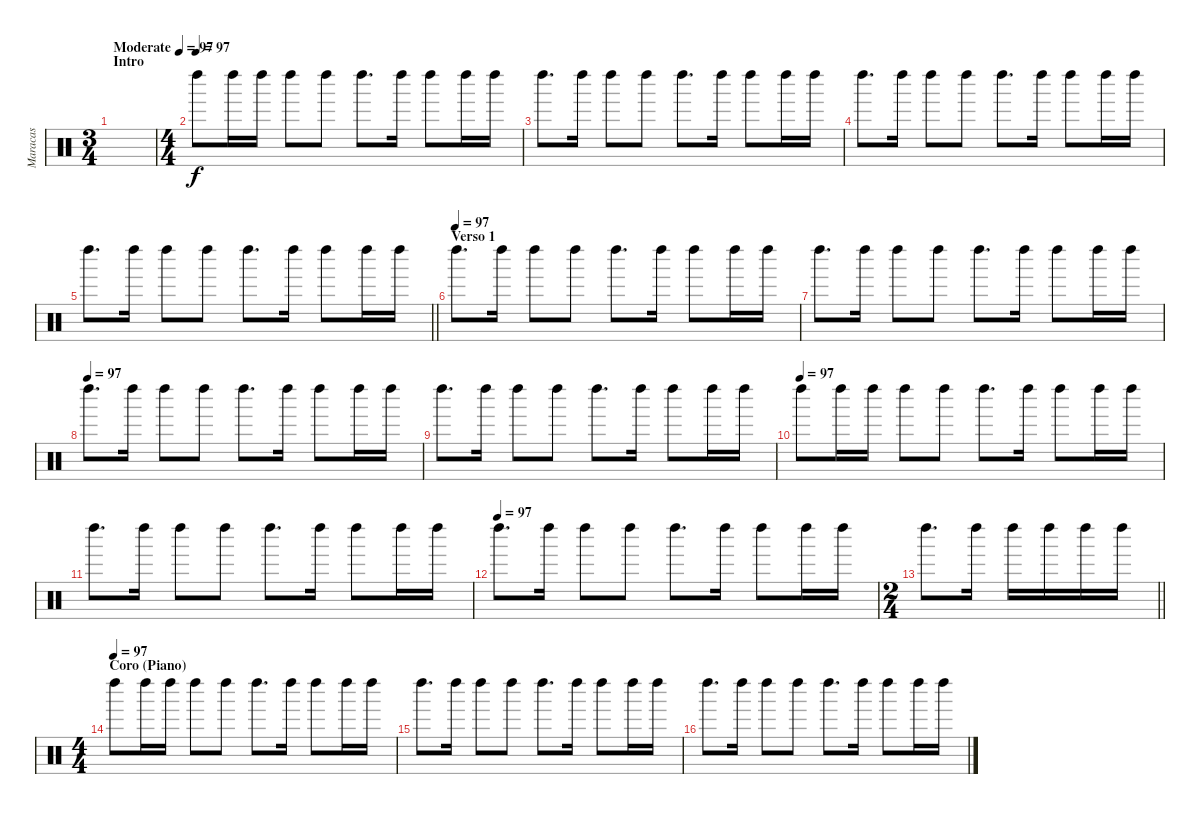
\track ("Maracas" "Maracas") {instrument percussion}
\staff {score}
\articulation defaults
\ts (3 4)
\section ("" "Intro")
\tempo (97 "Moderate")
\tempo 125
\tempo (97 "Moderate")
\clef neutral
\ks c
|
\ts (4 4)
\tempo (97)
"Left Maraca (hit)".8 "Left Maraca (hit)".16 "Left Maraca (hit)".16 "Left Maraca (hit)".8 "Left Maraca (hit)".8 "Left Maraca (hit)".8{d} "Left Maraca (hit)".16 "Left Maraca (hit)".8 "Left Maraca (hit)".16 "Left Maraca (hit)".16 |
"Left Maraca (hit)".8{d} "Left Maraca (hit)".16 "Left Maraca (hit)".8 "Left Maraca (hit)".8 "Left Maraca (hit)".8{d} "Left Maraca (hit)".16 "Left Maraca (hit)".8 "Left Maraca (hit)".16 "Left Maraca (hit)".16 |
"Left Maraca (hit)".8{d} "Left Maraca (hit)".16 "Left Maraca (hit)".8 "Left Maraca (hit)".8 "Left Maraca (hit)".8{d} "Left Maraca (hit)".16 "Left Maraca (hit)".8 "Left Maraca (hit)".16 "Left Maraca (hit)".16 |
\barLineRight lightlight "Left Maraca (hit)".8{d} "Left Maraca (hit)".16 "Left Maraca (hit)".8 "Left Maraca (hit)".8 "Left Maraca (hit)".8{d} "Left Maraca (hit)".16 "Left Maraca (hit)".8 "Left Maraca (hit)".16 "Left Maraca (hit)".16
|
\section ("" "Verso 1")
\tempo (97)
"Left Maraca (hit)".8{d} "Left Maraca (hit)".16 "Left Maraca (hit)".8 "Left Maraca (hit)".8 "Left Maraca (hit)".8{d} "Left Maraca (hit)".16 "Left Maraca (hit)".8 "Left Maraca (hit)".16 "Left Maraca (hit)".16 |
"Left Maraca (hit)".8{d} "Left Maraca (hit)".16 "Left Maraca (hit)".8 "Left Maraca (hit)".8 "Left Maraca (hit)".8{d} "Left Maraca (hit)".16 "Left Maraca (hit)".8 "Left Maraca (hit)".16 "Left Maraca (hit)".16 |
\tempo (97)
"Left Maraca (hit)".8{d} "Left Maraca (hit)".16 "Left Maraca (hit)".8 "Left Maraca (hit)".8 "Left Maraca (hit)".8{d} "Left Maraca (hit)".16 "Left Maraca (hit)".8 "Left Maraca (hit)".16 "Left Maraca (hit)".16 |
"Left Maraca (hit)".8{d} "Left Maraca (hit)".16 "Left Maraca (hit)".8 "Left Maraca (hit)".8 "Left Maraca (hit)".8{d} "Left Maraca (hit)".16 "Left Maraca (hit)".8 "Left Maraca (hit)".16 "Left Maraca (hit)".16 |
\tempo (97)
"Left Maraca (hit)".8 "Left Maraca (hit)".16 "Left Maraca (hit)".16 "Left Maraca (hit)".8 "Left Maraca (hit)".8 "Left Maraca (hit)".8{d} "Left Maraca (hit)".16 "Left Maraca (hit)".8 "Left Maraca (hit)".16 "Left Maraca (hit)".16 |
"Left Maraca (hit)".8{d} "Left Maraca (hit)".16 "Left Maraca (hit)".8 "Left Maraca (hit)".8 "Left Maraca (hit)".8{d} "Left Maraca (hit)".16 "Left Maraca (hit)".8 "Left Maraca (hit)".16 "Left Maraca (hit)".16 |
\tempo (97)
"Left Maraca (hit)".8{d} "Left Maraca (hit)".16 "Left Maraca (hit)".8 "Left Maraca (hit)".8 "Left Maraca (hit)".8{d} "Left Maraca (hit)".16 "Left Maraca (hit)".8 "Left Maraca (hit)".16 "Left Maraca (hit)".16 |
\ts (2 4)
\barLineRight lightlight "Left Maraca (hit)".8{d} "Left Maraca (hit)".16 "Left Maraca (hit)".16 "Left Maraca (hit)".16 "Left Maraca (hit)".16 "Left Maraca (hit)".16
|
\ts (4 4)
\section ("" "Coro (Piano)")
\tempo (97)
"Left Maraca (hit)".8 "Left Maraca (hit)".16 "Left Maraca (hit)".16 "Left Maraca (hit)".8 "Left Maraca (hit)".8 "Left Maraca (hit)".8{d} "Left Maraca (hit)".16 "Left Maraca (hit)".8 "Left Maraca (hit)".16 "Left Maraca (hit)".16 |
"Left Maraca (hit)".8{d} "Left Maraca (hit)".16 "Left Maraca (hit)".8 "Left Maraca (hit)".8 "Left Maraca (hit)".8{d} "Left Maraca (hit)".16 "Left Maraca (hit)".8 "Left Maraca (hit)".16 "Left Maraca (hit)".16 |
"Left Maraca (hit)".8{d} "Left Maraca (hit)".16 "Left Maraca (hit)".8 "Left Maraca (hit)".8 "Left Maraca (hit)".8{d} "Left Maraca (hit)".16 "Left Maraca (hit)".8 "Left Maraca (hit)".16 "Left Maraca (hit)".16
